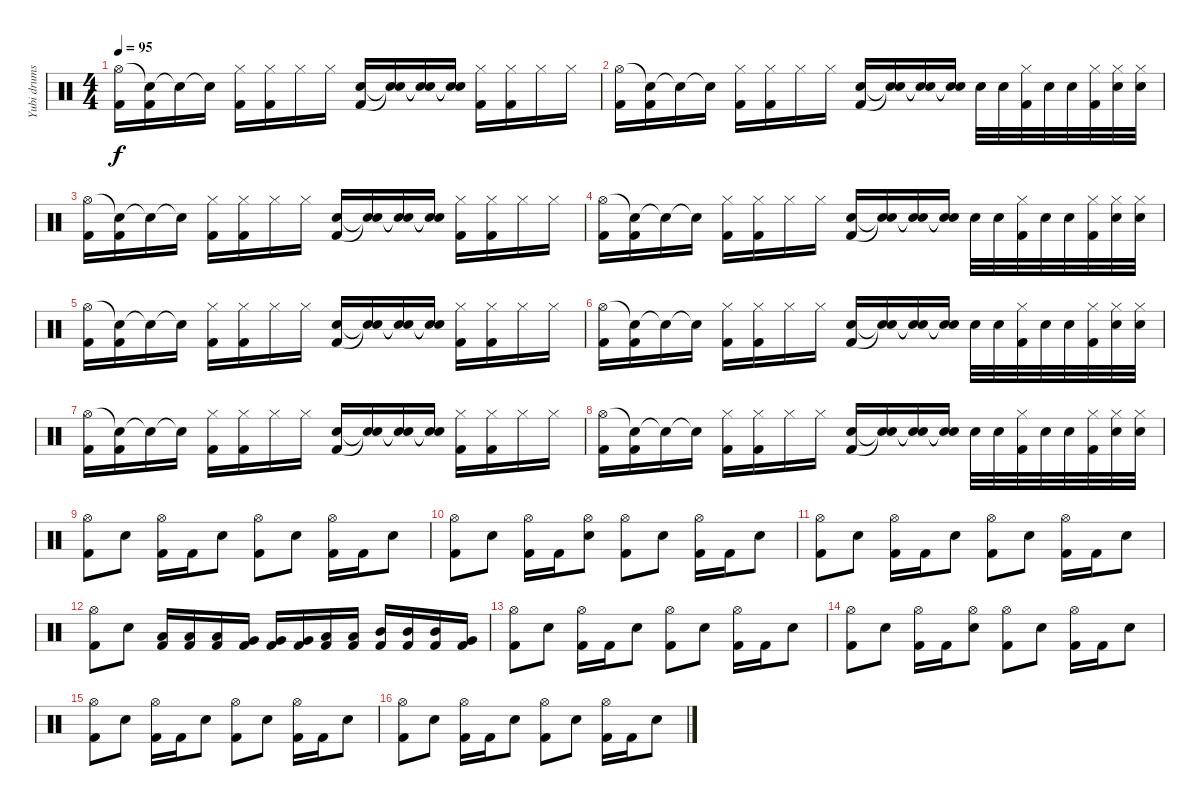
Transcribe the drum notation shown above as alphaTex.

\track ("Yubi drums" "Yubi drums") {instrument percussion}
\staff {score}
\articulation defaults
\ts (4 4)
\tempo 95
\clef neutral
\ks c
("Hi-Hat (open)" "Kick (hit) 2").16{dy f} ("Snare (hit)"{t} "Kick (hit) 2").16 "Snare (hit)"{t}.16 "Snare (hit)"{t}.16 ("Hi-Hat (closed)" "Kick (hit) 2").16 ("Hi-Hat (closed)" "Kick (hit) 2").16 "Hi-Hat (closed)".16 "Hi-Hat (closed)".16 ("Snare (hit) 2" "Kick (hit) 2").16 ("Snare (hit)"{t} "Snare (hit)"{t}).16 ("Snare (hit)"{t} "Snare (hit)"{t}).16 ("Snare (hit)"{t} "Snare (hit)"{t}).16 ("Hi-Hat (closed)" "Kick (hit) 2").16 ("Hi-Hat (closed)" "Kick (hit) 2").16 "Hi-Hat (closed)".16 "Hi-Hat (closed)".16 |
("Hi-Hat (open)" "Kick (hit) 2").16 ("Snare (hit)"{t} "Kick (hit) 2").16 "Snare (hit)"{t}.16 "Snare (hit)"{t}.16 ("Hi-Hat (closed)" "Kick (hit) 2").16 ("Hi-Hat (closed)" "Kick (hit) 2").16 "Hi-Hat (closed)".16 "Hi-Hat (closed)".16 ("Snare (hit) 2" "Kick (hit) 2").16 ("Snare (hit)"{t} "Snare (hit)"{t}).16 ("Snare (hit)"{t} "Snare (hit)"{t}).16 ("Snare (hit)"{t} "Snare (hit)"{t}).16 "Snare (hit) 2".32 "Snare (hit) 2".32 ("Hi-Hat (closed)" "Kick (hit) 2").32 "Snare (hit) 2".32 "Snare (hit) 2".32 ("Hi-Hat (closed)" "Kick (hit) 2").32 ("Hi-Hat (closed)" "Snare (hit) 2").32 ("Hi-Hat (closed)" "Snare (hit) 2").32 |
("Hi-Hat (open)" "Kick (hit) 2").16 ("Snare (hit)"{t} "Kick (hit) 2").16 "Snare (hit)"{t}.16 "Snare (hit)"{t}.16 ("Hi-Hat (closed)" "Kick (hit) 2").16 ("Hi-Hat (closed)" "Kick (hit) 2").16 "Hi-Hat (closed)".16 "Hi-Hat (closed)".16 ("Snare (hit) 2" "Kick (hit) 2").16 ("Snare (hit)"{t} "Snare (hit)"{t}).16 ("Snare (hit)"{t} "Snare (hit)"{t}).16 ("Snare (hit)"{t} "Snare (hit)"{t}).16 ("Hi-Hat (closed)" "Kick (hit) 2").16 ("Hi-Hat (closed)" "Kick (hit) 2").16 "Hi-Hat (closed)".16 "Hi-Hat (closed)".16 |
("Hi-Hat (open)" "Kick (hit) 2").16 ("Snare (hit)"{t} "Kick (hit) 2").16 "Snare (hit)"{t}.16 "Snare (hit)"{t}.16 ("Hi-Hat (closed)" "Kick (hit) 2").16 ("Hi-Hat (closed)" "Kick (hit) 2").16 "Hi-Hat (closed)".16 "Hi-Hat (closed)".16 ("Snare (hit) 2" "Kick (hit) 2").16 ("Snare (hit)"{t} "Snare (hit)"{t}).16 ("Snare (hit)"{t} "Snare (hit)"{t}).16 ("Snare (hit)"{t} "Snare (hit)"{t}).16 "Snare (hit) 2".32 "Snare (hit) 2".32 ("Hi-Hat (closed)" "Kick (hit) 2").32 "Snare (hit) 2".32 "Snare (hit) 2".32 ("Hi-Hat (closed)" "Kick (hit) 2").32 ("Hi-Hat (closed)" "Snare (hit) 2").32 ("Hi-Hat (closed)" "Snare (hit) 2").32 |
("Hi-Hat (open)" "Kick (hit) 2").16 ("Snare (hit)"{t} "Kick (hit) 2").16 "Snare (hit)"{t}.16 "Snare (hit)"{t}.16 ("Hi-Hat (closed)" "Kick (hit) 2").16 ("Hi-Hat (closed)" "Kick (hit) 2").16 "Hi-Hat (closed)".16 "Hi-Hat (closed)".16 ("Snare (hit) 2" "Kick (hit) 2").16 ("Snare (hit)"{t} "Snare (hit)"{t}).16 ("Snare (hit)"{t} "Snare (hit)"{t}).16 ("Snare (hit)"{t} "Snare (hit)"{t}).16 ("Hi-Hat (closed)" "Kick (hit) 2").16 ("Hi-Hat (closed)" "Kick (hit) 2").16 "Hi-Hat (closed)".16 "Hi-Hat (closed)".16 |
("Hi-Hat (open)" "Kick (hit) 2").16 ("Snare (hit)"{t} "Kick (hit) 2").16 "Snare (hit)"{t}.16 "Snare (hit)"{t}.16 ("Hi-Hat (closed)" "Kick (hit) 2").16 ("Hi-Hat (closed)" "Kick (hit) 2").16 "Hi-Hat (closed)".16 "Hi-Hat (closed)".16 ("Snare (hit) 2" "Kick (hit) 2").16 ("Snare (hit)"{t} "Snare (hit)"{t}).16 ("Snare (hit)"{t} "Snare (hit)"{t}).16 ("Snare (hit)"{t} "Snare (hit)"{t}).16 "Snare (hit) 2".32 "Snare (hit) 2".32 ("Hi-Hat (closed)" "Kick (hit) 2").32 "Snare (hit) 2".32 "Snare (hit) 2".32 ("Hi-Hat (closed)" "Kick (hit) 2").32 ("Hi-Hat (closed)" "Snare (hit) 2").32 ("Hi-Hat (closed)" "Snare (hit) 2").32 |
("Hi-Hat (open)" "Kick (hit) 2").16 ("Snare (hit)"{t} "Kick (hit) 2").16 "Snare (hit)"{t}.16 "Snare (hit)"{t}.16 ("Hi-Hat (closed)" "Kick (hit) 2").16 ("Hi-Hat (closed)" "Kick (hit) 2").16 "Hi-Hat (closed)".16 "Hi-Hat (closed)".16 ("Snare (hit) 2" "Kick (hit) 2").16 ("Snare (hit)"{t} "Snare (hit)"{t}).16 ("Snare (hit)"{t} "Snare (hit)"{t}).16 ("Snare (hit)"{t} "Snare (hit)"{t}).16 ("Hi-Hat (closed)" "Kick (hit) 2").16 ("Hi-Hat (closed)" "Kick (hit) 2").16 "Hi-Hat (closed)".16 "Hi-Hat (closed)".16 |
("Hi-Hat (open)" "Kick (hit) 2").16 ("Snare (hit)"{t} "Kick (hit) 2").16 "Snare (hit)"{t}.16 "Snare (hit)"{t}.16 ("Hi-Hat (closed)" "Kick (hit) 2").16 ("Hi-Hat (closed)" "Kick (hit) 2").16 "Hi-Hat (closed)".16 "Hi-Hat (closed)".16 ("Snare (hit) 2" "Kick (hit) 2").16 ("Snare (hit)"{t} "Snare (hit)"{t}).16 ("Snare (hit)"{t} "Snare (hit)"{t}).16 ("Snare (hit)"{t} "Snare (hit)"{t}).16 "Snare (hit) 2".32 "Snare (hit) 2".32 ("Hi-Hat (closed)" "Kick (hit) 2").32 "Snare (hit) 2".32 "Snare (hit) 2".32 ("Hi-Hat (closed)" "Kick (hit) 2").32 ("Hi-Hat (closed)" "Snare (hit) 2").32 ("Hi-Hat (closed)" "Snare (hit) 2").32 |
("Hi-Hat (open)" "Kick (hit) 2").8 "Snare (hit) 2".8 ("Hi-Hat (open)" "Kick (hit) 2").16 "Kick (hit) 2".16 "Snare (hit) 2".8 ("Hi-Hat (open)" "Kick (hit) 2").8 "Snare (hit) 2".8 ("Hi-Hat (open)" "Kick (hit) 2").16 "Kick (hit) 2".16 "Snare (hit) 2".8 |
("Hi-Hat (open)" "Kick (hit) 2").8 "Snare (hit) 2".8 ("Hi-Hat (open)" "Kick (hit) 2").16 "Kick (hit) 2".16 ("Hi-Hat (open)" "Snare (hit) 2").8 ("Hi-Hat (open)" "Kick (hit) 2").8 "Snare (hit) 2".8 ("Hi-Hat (open)" "Kick (hit) 2").16 "Kick (hit) 2".16 "Snare (hit) 2".8 |
("Hi-Hat (open)" "Kick (hit) 2").8 "Snare (hit) 2".8 ("Hi-Hat (open)" "Kick (hit) 2").16 "Kick (hit) 2".16 "Snare (hit) 2".8 ("Hi-Hat (open)" "Kick (hit) 2").8 "Snare (hit) 2".8 ("Hi-Hat (open)" "Kick (hit) 2").16 "Kick (hit) 2".16 "Snare (hit) 2".8 |
("Hi-Hat (open)" "Kick (hit) 2").8 "Snare (hit) 2".8 ("Low Tom (hit)" "Kick (hit) 2").16 ("Low Tom (hit)" "Kick (hit) 2").16 ("Low Tom (hit)" "Kick (hit) 2").16 ("Very Low Tom (hit)" "Kick (hit) 2").16 ("Very Low Tom (hit)" "Kick (hit) 2").16 ("Very Low Tom (hit)" "Kick (hit) 2").16 ("Low Tom (hit)" "Kick (hit) 2").16 ("Low Tom (hit)" "Kick (hit) 2").16 ("Mid Tom (hit)" "Kick (hit) 2").16 ("Mid Tom (hit)" "Kick (hit) 2").16 ("Mid Tom (hit)" "Kick (hit) 2").16 ("Very Low Tom (hit)" "Kick (hit) 2").16 |
("Hi-Hat (open)" "Kick (hit) 2").8 "Snare (hit) 2".8 ("Hi-Hat (open)" "Kick (hit) 2").16 "Kick (hit) 2".16 "Snare (hit) 2".8 ("Hi-Hat (open)" "Kick (hit) 2").8 "Snare (hit) 2".8 ("Hi-Hat (open)" "Kick (hit) 2").16 "Kick (hit) 2".16 "Snare (hit) 2".8 |
("Hi-Hat (open)" "Kick (hit) 2").8 "Snare (hit) 2".8 ("Hi-Hat (open)" "Kick (hit) 2").16 "Kick (hit) 2".16 ("Hi-Hat (open)" "Snare (hit) 2").8 ("Hi-Hat (open)" "Kick (hit) 2").8 "Snare (hit) 2".8 ("Hi-Hat (open)" "Kick (hit) 2").16 "Kick (hit) 2".16 "Snare (hit) 2".8 |
("Hi-Hat (open)" "Kick (hit) 2").8 "Snare (hit) 2".8 ("Hi-Hat (open)" "Kick (hit) 2").16 "Kick (hit) 2".16 "Snare (hit) 2".8 ("Hi-Hat (open)" "Kick (hit) 2").8 "Snare (hit) 2".8 ("Hi-Hat (open)" "Kick (hit) 2").16 "Kick (hit) 2".16 "Snare (hit) 2".8 |
("Hi-Hat (open)" "Kick (hit) 2").8 "Snare (hit) 2".8 ("Hi-Hat (open)" "Kick (hit) 2").16 "Kick (hit) 2".16 "Snare (hit) 2".8 ("Hi-Hat (open)" "Kick (hit) 2").8 "Snare (hit) 2".8 ("Hi-Hat (open)" "Kick (hit) 2").16 "Kick (hit) 2".16 "Snare (hit) 2".8
